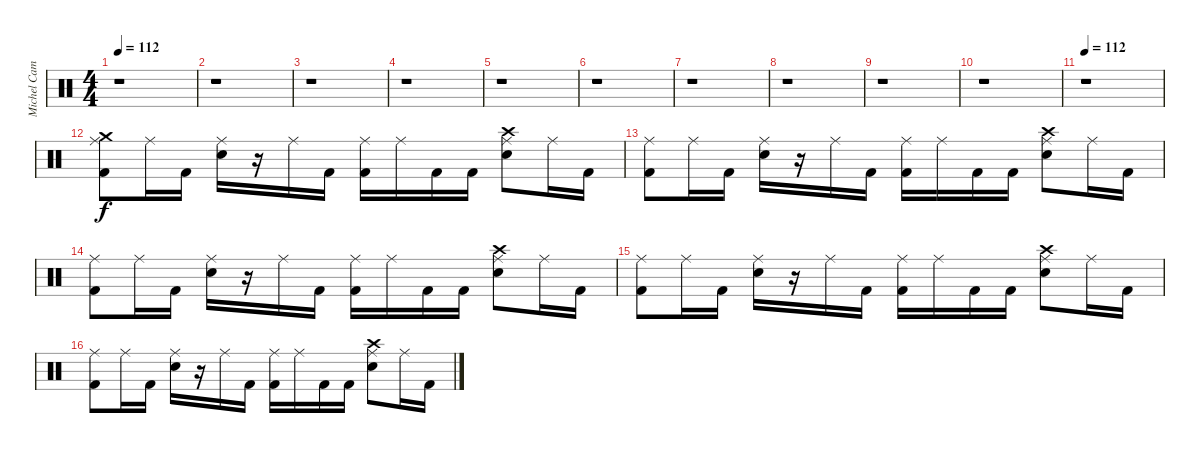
\track ("Michel Camiade" "Michel Cam") {instrument percussion}
\staff {score}
\articulation defaults
\ts (4 4)
\tempo 112
\tempo 80
\tempo 112
\clef neutral
\ks c
r.1{dy f} |
r.1 |
r.1 |
r.1 |
r.1 |
r.1 |
r.1 |
r.1 |
r.1 |
r.1 |
\tempo 112
r.1 |
("Crash medium (hit)" "Ride (middle)" "Kick (hit) 2").8 "Ride (middle)".16 "Kick (hit) 2".16 ("Ride (middle)" "Snare (hit) 2").16 r.16 "Ride (middle)".16 "Kick (hit) 2".16 ("Ride (middle)" "Kick (hit) 2").16 "Ride (middle)".16 "Kick (hit) 2".16 "Kick (hit) 2".16 ("Crash high (hit)" "Ride (middle)" "Snare (hit) 2").8 "Ride (middle)".16 "Kick (hit) 2".16 |
("Ride (middle)" "Kick (hit) 2").8 "Ride (middle)".16 "Kick (hit) 2".16 ("Ride (middle)" "Snare (hit) 2").16 r.16 "Ride (middle)".16 "Kick (hit) 2".16 ("Ride (middle)" "Kick (hit) 2").16 "Ride (middle)".16 "Kick (hit) 2".16 "Kick (hit) 2".16 ("Crash high (hit)" "Ride (middle)" "Snare (hit) 2").8 "Ride (middle)".16 "Kick (hit) 2".16 |
("Ride (middle)" "Kick (hit) 2").8 "Ride (middle)".16 "Kick (hit) 2".16 ("Ride (middle)" "Snare (hit) 2").16 r.16 "Ride (middle)".16 "Kick (hit) 2".16 ("Ride (middle)" "Kick (hit) 2").16 "Ride (middle)".16 "Kick (hit) 2".16 "Kick (hit) 2".16 ("Crash high (hit)" "Ride (middle)" "Snare (hit) 2").8 "Ride (middle)".16 "Kick (hit) 2".16 |
("Ride (middle)" "Kick (hit) 2").8 "Ride (middle)".16 "Kick (hit) 2".16 ("Ride (middle)" "Snare (hit) 2").16 r.16 "Ride (middle)".16 "Kick (hit) 2".16 ("Ride (middle)" "Kick (hit) 2").16 "Ride (middle)".16 "Kick (hit) 2".16 "Kick (hit) 2".16 ("Crash high (hit)" "Ride (middle)" "Snare (hit) 2").8 "Ride (middle)".16 "Kick (hit) 2".16 |
("Ride (middle)" "Kick (hit) 2").8 "Ride (middle)".16 "Kick (hit) 2".16 ("Ride (middle)" "Snare (hit) 2").16 r.16 "Ride (middle)".16 "Kick (hit) 2".16 ("Ride (middle)" "Kick (hit) 2").16 "Ride (middle)".16 "Kick (hit) 2".16 "Kick (hit) 2".16 ("Crash high (hit)" "Ride (middle)" "Snare (hit) 2").8 "Ride (middle)".16 "Kick (hit) 2".16
